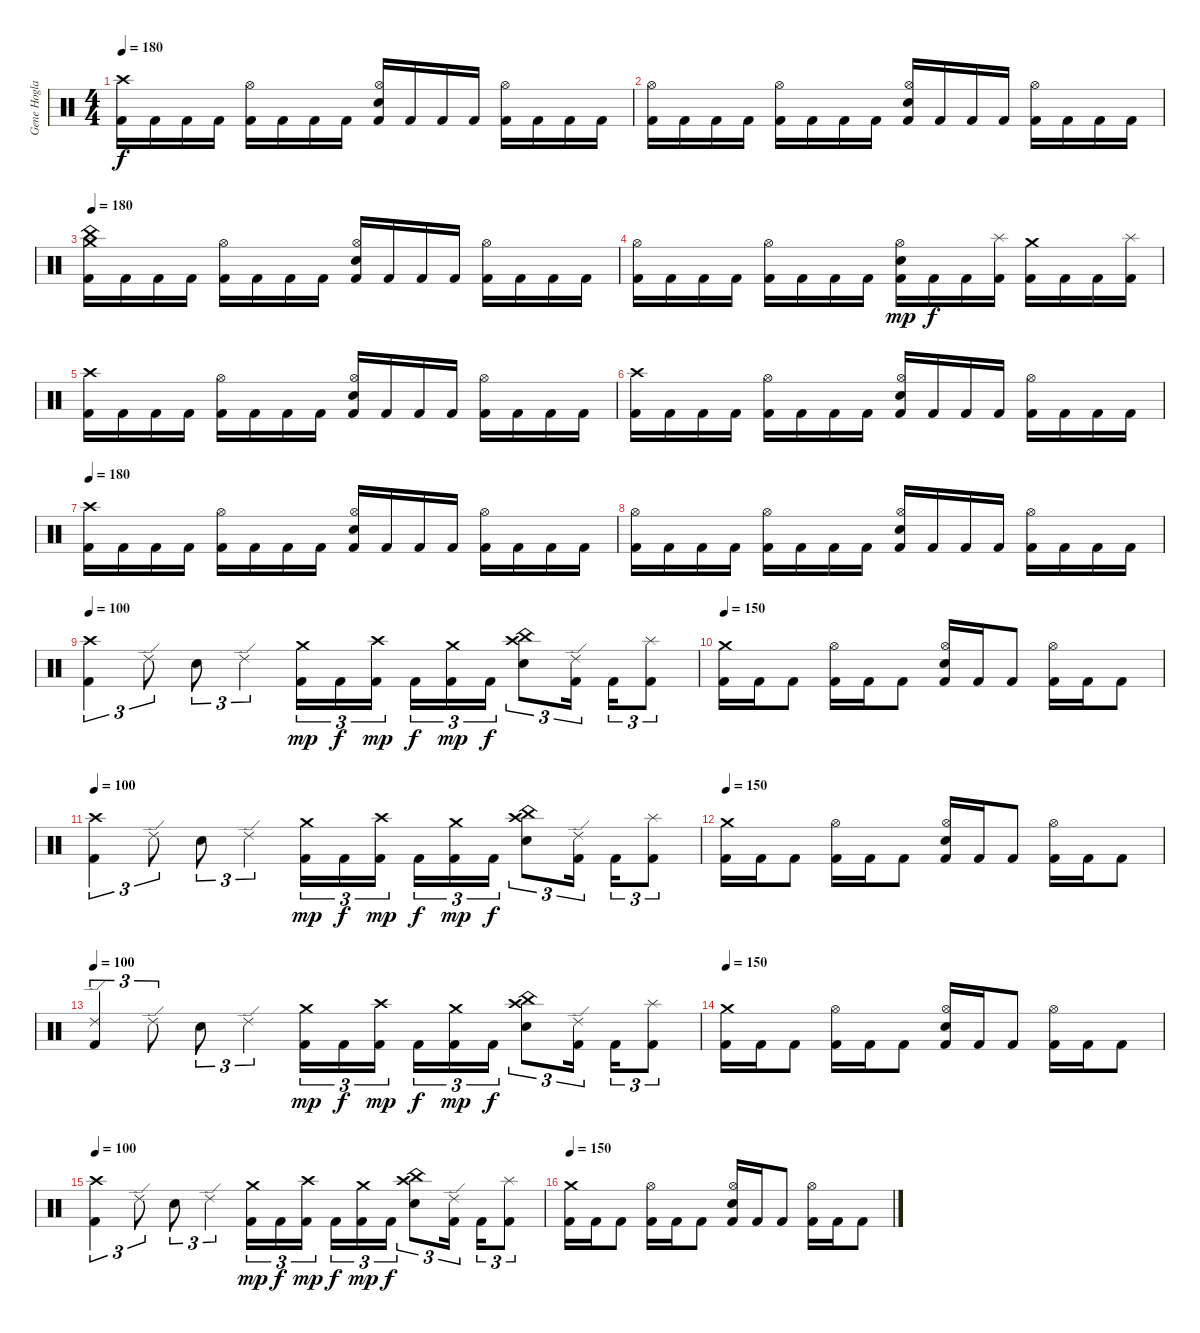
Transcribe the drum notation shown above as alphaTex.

\track ("Gene Hoglan" "Gene Hogla") {instrument percussion}
\staff {score}
\articulation defaults
\ts (4 4)
\tempo 180
\clef neutral
\ks c
("Kick (hit) 2" "Crash high (hit)").16{dy f} "Kick (hit) 2".16 "Kick (hit) 2".16 "Kick (hit) 2".16 ("Kick (hit) 2" "Hi-Hat (open)").16 "Kick (hit) 2".16 "Kick (hit) 2".16 "Kick (hit) 2".16 ("Kick (hit) 2" "Electric Snare (hit)" "Hi-Hat (open)").16 "Kick (hit) 2".16 "Kick (hit) 2".16 "Kick (hit) 2".16 ("Kick (hit) 2" "Hi-Hat (open)").16 "Kick (hit) 2".16 "Kick (hit) 2".16 "Kick (hit) 2".16 |
("Kick (hit) 2" "Hi-Hat (open)").16 "Kick (hit) 2".16 "Kick (hit) 2".16 "Kick (hit) 2".16 ("Kick (hit) 2" "Hi-Hat (open)").16 "Kick (hit) 2".16 "Kick (hit) 2".16 "Kick (hit) 2".16 ("Kick (hit) 2" "Electric Snare (hit)" "Hi-Hat (open)").16 "Kick (hit) 2".16 "Kick (hit) 2".16 "Kick (hit) 2".16 ("Kick (hit) 2" "Hi-Hat (open)").16 "Kick (hit) 2".16 "Kick (hit) 2".16 "Kick (hit) 2".16 |
\tempo 180
("Kick (hit) 2" "Crash medium (hit)" "China (hit)").16 "Kick (hit) 2".16 "Kick (hit) 2".16 "Kick (hit) 2".16 ("Kick (hit) 2" "Hi-Hat (open)").16 "Kick (hit) 2".16 "Kick (hit) 2".16 "Kick (hit) 2".16 ("Kick (hit) 2" "Electric Snare (hit)" "Hi-Hat (open)").16 "Kick (hit) 2".16 "Kick (hit) 2".16 "Kick (hit) 2".16 ("Kick (hit) 2" "Hi-Hat (open)").16 "Kick (hit) 2".16 "Kick (hit) 2".16 "Kick (hit) 2".16 |
("Kick (hit) 2" "Hi-Hat (open)").16 "Kick (hit) 2".16 "Kick (hit) 2".16 "Kick (hit) 2".16 ("Kick (hit) 2" "Hi-Hat (open)").16 "Kick (hit) 2".16 "Kick (hit) 2".16 "Kick (hit) 2".16 ("Kick (hit) 2" "Electric Snare (hit)" "Hi-Hat (open)").16{dy mp} "Kick (hit) 2".16{dy f} "Kick (hit) 2".16 ("Kick (hit) 2" "Splash (hit)").16 ("Kick (hit) 2" "Crash medium (hit)").16 "Kick (hit) 2".16 "Kick (hit) 2".16 ("Kick (hit) 2" "Splash (hit)").16 |
("Kick (hit) 2" "Crash high (hit)").16 "Kick (hit) 2".16 "Kick (hit) 2".16 "Kick (hit) 2".16 ("Kick (hit) 2" "Hi-Hat (open)").16 "Kick (hit) 2".16 "Kick (hit) 2".16 "Kick (hit) 2".16 ("Kick (hit) 2" "Electric Snare (hit)" "Hi-Hat (open)").16 "Kick (hit) 2".16 "Kick (hit) 2".16 "Kick (hit) 2".16 ("Kick (hit) 2" "Hi-Hat (open)").16 "Kick (hit) 2".16 "Kick (hit) 2".16 "Kick (hit) 2".16 |
("Kick (hit) 2" "Crash high (hit)").16 "Kick (hit) 2".16 "Kick (hit) 2".16 "Kick (hit) 2".16 ("Kick (hit) 2" "Hi-Hat (open)").16 "Kick (hit) 2".16 "Kick (hit) 2".16 "Kick (hit) 2".16 ("Kick (hit) 2" "Electric Snare (hit)" "Hi-Hat (open)").16 "Kick (hit) 2".16 "Kick (hit) 2".16 "Kick (hit) 2".16 ("Kick (hit) 2" "Hi-Hat (open)").16 "Kick (hit) 2".16 "Kick (hit) 2".16 "Kick (hit) 2".16 |
\tempo 180
("Kick (hit) 2" "Crash high (hit)").16 "Kick (hit) 2".16 "Kick (hit) 2".16 "Kick (hit) 2".16 ("Kick (hit) 2" "Hi-Hat (open)").16 "Kick (hit) 2".16 "Kick (hit) 2".16 "Kick (hit) 2".16 ("Kick (hit) 2" "Electric Snare (hit)" "Hi-Hat (open)").16 "Kick (hit) 2".16 "Kick (hit) 2".16 "Kick (hit) 2".16 ("Kick (hit) 2" "Hi-Hat (open)").16 "Kick (hit) 2".16 "Kick (hit) 2".16 "Kick (hit) 2".16 |
("Kick (hit) 2" "Hi-Hat (open)").16 "Kick (hit) 2".16 "Kick (hit) 2".16 "Kick (hit) 2".16 ("Kick (hit) 2" "Hi-Hat (open)").16 "Kick (hit) 2".16 "Kick (hit) 2".16 "Kick (hit) 2".16 ("Kick (hit) 2" "Electric Snare (hit)" "Hi-Hat (open)").16 "Kick (hit) 2".16 "Kick (hit) 2".16 "Kick (hit) 2".16 ("Kick (hit) 2" "Hi-Hat (open)").16 "Kick (hit) 2".16 "Kick (hit) 2".16 "Kick (hit) 2".16 |
\tempo 100
("Kick (hit) 2" "Crash high (hit)").4{tu (3 2)} "Ride (edge) 2".8{tu (3 2)} "Electric Snare (hit)".8{tu (3 2)} "Ride (edge) 2".4{tu (3 2)} ("Kick (hit) 2" "Crash medium (hit)").16{tu (3 2) dy mp} "Kick (hit) 2".16{tu (3 2) dy f} ("Kick (hit) 2" "Crash high (hit)").16{tu (3 2) dy mp} "Kick (hit) 2".16{tu (3 2) dy f} ("Kick (hit) 2" "Crash medium (hit)").16{tu (3 2) dy mp} "Kick (hit) 2".16{tu (3 2) dy f} ("Electric Snare (hit)" "Crash high (hit)" "China (hit)").8{tu (3 2)} ("Kick (hit) 2" "Ride (edge) 2").16{tu (3 2)} "Kick (hit) 2".16{tu (3 2)} ("Kick (hit) 2" "Splash (hit)").8{tu (3 2)} |
\tempo 150
("Kick (hit) 2" "Crash medium (hit)").16 "Kick (hit) 2".16 "Kick (hit) 2".8 ("Kick (hit) 2" "Hi-Hat (open)").16 "Kick (hit) 2".16 "Kick (hit) 2".8 ("Kick (hit) 2" "Electric Snare (hit)" "Hi-Hat (open)").16 "Kick (hit) 2".16 "Kick (hit) 2".8 ("Kick (hit) 2" "Hi-Hat (open)").16 "Kick (hit) 2".16 "Kick (hit) 2".8 |
\tempo 100
("Kick (hit) 2" "Crash high (hit)").4{tu (3 2)} "Ride (edge) 2".8{tu (3 2)} "Electric Snare (hit)".8{tu (3 2)} "Ride (edge) 2".4{tu (3 2)} ("Kick (hit) 2" "Crash medium (hit)").16{tu (3 2) dy mp} "Kick (hit) 2".16{tu (3 2) dy f} ("Kick (hit) 2" "Crash high (hit)").16{tu (3 2) dy mp} "Kick (hit) 2".16{tu (3 2) dy f} ("Kick (hit) 2" "Crash medium (hit)").16{tu (3 2) dy mp} "Kick (hit) 2".16{tu (3 2) dy f} ("Electric Snare (hit)" "Crash high (hit)" "China (hit)").8{tu (3 2)} ("Kick (hit) 2" "Ride (edge) 2").16{tu (3 2)} "Kick (hit) 2".16{tu (3 2)} ("Kick (hit) 2" "Splash (hit)").8{tu (3 2)} |
\tempo 150
("Kick (hit) 2" "Crash medium (hit)").16 "Kick (hit) 2".16 "Kick (hit) 2".8 ("Kick (hit) 2" "Hi-Hat (open)").16 "Kick (hit) 2".16 "Kick (hit) 2".8 ("Kick (hit) 2" "Electric Snare (hit)" "Hi-Hat (open)").16 "Kick (hit) 2".16 "Kick (hit) 2".8 ("Kick (hit) 2" "Hi-Hat (open)").16 "Kick (hit) 2".16 "Kick (hit) 2".8 |
\tempo 100
("Kick (hit) 2" "Ride (edge) 2").4{tu (3 2)} "Ride (edge) 2".8{tu (3 2)} "Electric Snare (hit)".8{tu (3 2)} "Ride (edge) 2".4{tu (3 2)} ("Kick (hit) 2" "Crash medium (hit)").16{tu (3 2) dy mp} "Kick (hit) 2".16{tu (3 2) dy f} ("Kick (hit) 2" "Crash high (hit)").16{tu (3 2) dy mp} "Kick (hit) 2".16{tu (3 2) dy f} ("Kick (hit) 2" "Crash medium (hit)").16{tu (3 2) dy mp} "Kick (hit) 2".16{tu (3 2) dy f} ("Electric Snare (hit)" "Crash high (hit)" "China (hit)").8{tu (3 2)} ("Kick (hit) 2" "Ride (edge) 2").16{tu (3 2)} "Kick (hit) 2".16{tu (3 2)} ("Kick (hit) 2" "Splash (hit)").8{tu (3 2)} |
\tempo 150
("Kick (hit) 2" "Crash medium (hit)").16 "Kick (hit) 2".16 "Kick (hit) 2".8 ("Kick (hit) 2" "Hi-Hat (open)").16 "Kick (hit) 2".16 "Kick (hit) 2".8 ("Kick (hit) 2" "Electric Snare (hit)" "Hi-Hat (open)").16 "Kick (hit) 2".16 "Kick (hit) 2".8 ("Kick (hit) 2" "Hi-Hat (open)").16 "Kick (hit) 2".16 "Kick (hit) 2".8 |
\tempo 100
("Kick (hit) 2" "Crash high (hit)").4{tu (3 2)} "Ride (edge) 2".8{tu (3 2)} "Electric Snare (hit)".8{tu (3 2)} "Ride (edge) 2".4{tu (3 2)} ("Kick (hit) 2" "Crash medium (hit)").16{tu (3 2) dy mp} "Kick (hit) 2".16{tu (3 2) dy f} ("Kick (hit) 2" "Crash high (hit)").16{tu (3 2) dy mp} "Kick (hit) 2".16{tu (3 2) dy f} ("Kick (hit) 2" "Crash medium (hit)").16{tu (3 2) dy mp} "Kick (hit) 2".16{tu (3 2) dy f} ("Electric Snare (hit)" "Crash high (hit)" "China (hit)").8{tu (3 2)} ("Kick (hit) 2" "Ride (edge) 2").16{tu (3 2)} "Kick (hit) 2".16{tu (3 2)} ("Kick (hit) 2" "Splash (hit)").8{tu (3 2)} |
\tempo 150
("Kick (hit) 2" "Crash medium (hit)").16 "Kick (hit) 2".16 "Kick (hit) 2".8 ("Kick (hit) 2" "Hi-Hat (open)").16 "Kick (hit) 2".16 "Kick (hit) 2".8 ("Kick (hit) 2" "Electric Snare (hit)" "Hi-Hat (open)").16 "Kick (hit) 2".16 "Kick (hit) 2".8 ("Kick (hit) 2" "Hi-Hat (open)").16 "Kick (hit) 2".16 "Kick (hit) 2".8
